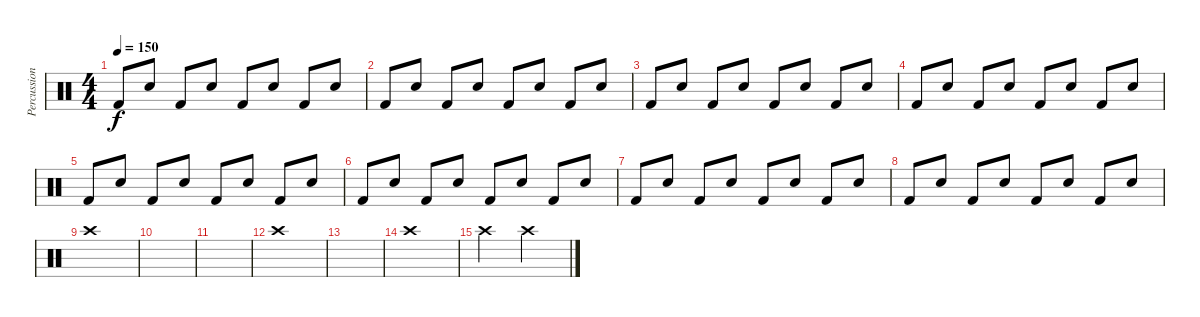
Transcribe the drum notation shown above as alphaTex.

\track ("Percussion" "Percussion") {instrument percussion}
\staff {score}
\articulation defaults
\ts (4 4)
\tempo 150
\clef neutral
\ks c "Kick (hit) 2".8{dy f} "Electric Snare (hit)".8 "Kick (hit) 2".8 "Electric Snare (hit)".8 "Kick (hit) 2".8 "Electric Snare (hit)".8 "Kick (hit) 2".8 "Electric Snare (hit)".8
|
"Kick (hit) 2".8 "Electric Snare (hit)".8 "Kick (hit) 2".8 "Electric Snare (hit)".8 "Kick (hit) 2".8 "Electric Snare (hit)".8 "Kick (hit) 2".8 "Electric Snare (hit)".8 |
"Kick (hit) 2".8 "Electric Snare (hit)".8 "Kick (hit) 2".8 "Electric Snare (hit)".8 "Kick (hit) 2".8 "Electric Snare (hit)".8 "Kick (hit) 2".8 "Electric Snare (hit)".8 |
"Kick (hit) 2".8 "Electric Snare (hit)".8 "Kick (hit) 2".8 "Electric Snare (hit)".8 "Kick (hit) 2".8 "Electric Snare (hit)".8 "Kick (hit) 2".8 "Electric Snare (hit)".8 |
"Kick (hit) 2".8 "Electric Snare (hit)".8 "Kick (hit) 2".8 "Electric Snare (hit)".8 "Kick (hit) 2".8 "Electric Snare (hit)".8 "Kick (hit) 2".8 "Electric Snare (hit)".8 |
"Kick (hit) 2".8 "Electric Snare (hit)".8 "Kick (hit) 2".8 "Electric Snare (hit)".8 "Kick (hit) 2".8 "Electric Snare (hit)".8 "Kick (hit) 2".8 "Electric Snare (hit)".8 |
"Kick (hit) 2".8 "Electric Snare (hit)".8 "Kick (hit) 2".8 "Electric Snare (hit)".8 "Kick (hit) 2".8 "Electric Snare (hit)".8 "Kick (hit) 2".8 "Electric Snare (hit)".8 |
"Kick (hit) 2".8 "Electric Snare (hit)".8 "Kick (hit) 2".8 "Electric Snare (hit)".8 "Kick (hit) 2".8 "Electric Snare (hit)".8 "Kick (hit) 2".8 "Electric Snare (hit)".8 |
"Crash high (hit)".1 |
|
|
"Crash high (hit)".1 |
|
"Crash high (hit)".1 |
"Crash high (hit)".2 "Crash high (hit)".2
